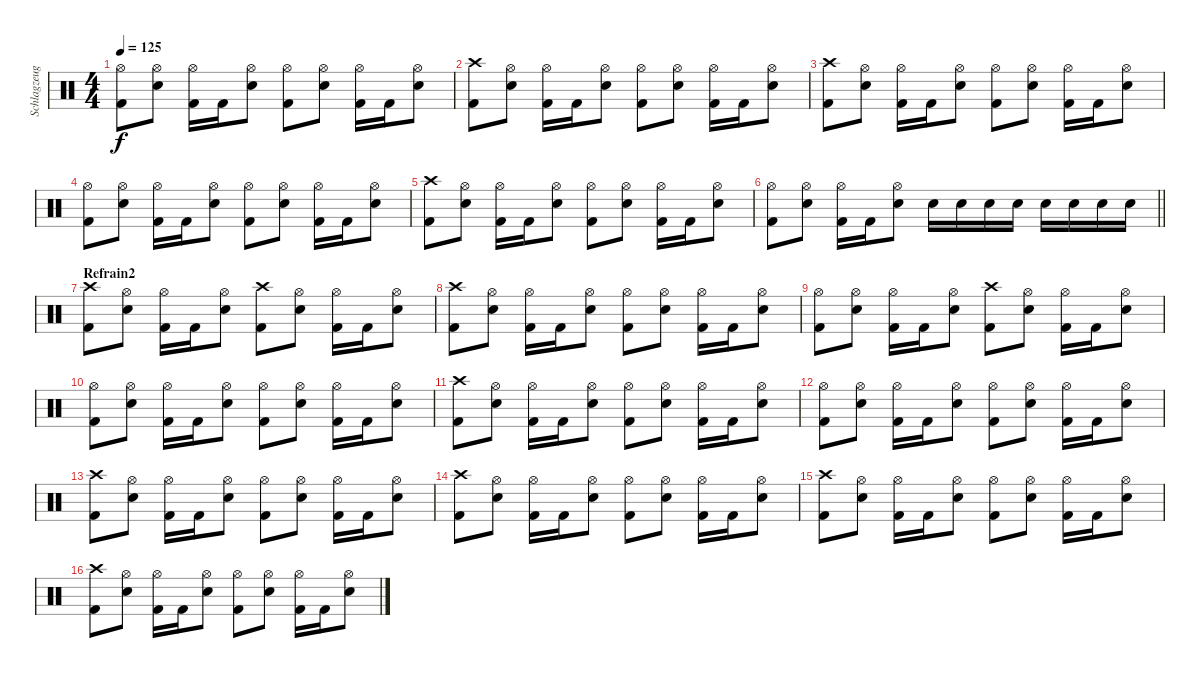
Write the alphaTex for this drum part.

\track ("Schlagzeug" "Schlagzeug") {instrument percussion}
\staff {score}
\articulation defaults
\ts (4 4)
\tempo 125
\clef neutral
\ks c
("Hi-Hat (open)" "Kick (hit) 2").8{dy f} ("Hi-Hat (open)" "Electric Snare (hit)").8 ("Hi-Hat (open)" "Kick (hit) 2").16 "Kick (hit) 2".16 ("Hi-Hat (open)" "Electric Snare (hit)").8 ("Hi-Hat (open)" "Kick (hit) 2").8 ("Hi-Hat (open)" "Electric Snare (hit)").8 ("Hi-Hat (open)" "Kick (hit) 2").16 "Kick (hit) 2".16 ("Hi-Hat (open)" "Electric Snare (hit)").8 |
("Crash high (hit)" "Kick (hit) 2").8 ("Hi-Hat (open)" "Electric Snare (hit)").8 ("Hi-Hat (open)" "Kick (hit) 2").16 "Kick (hit) 2".16 ("Hi-Hat (open)" "Electric Snare (hit)").8 ("Hi-Hat (open)" "Kick (hit) 2").8 ("Hi-Hat (open)" "Electric Snare (hit)").8 ("Hi-Hat (open)" "Kick (hit) 2").16 "Kick (hit) 2".16 ("Hi-Hat (open)" "Electric Snare (hit)").8 |
("Crash high (hit)" "Kick (hit) 2").8 ("Hi-Hat (open)" "Electric Snare (hit)").8 ("Hi-Hat (open)" "Kick (hit) 2").16 "Kick (hit) 2".16 ("Hi-Hat (open)" "Electric Snare (hit)").8 ("Hi-Hat (open)" "Kick (hit) 2").8 ("Hi-Hat (open)" "Electric Snare (hit)").8 ("Hi-Hat (open)" "Kick (hit) 2").16 "Kick (hit) 2".16 ("Hi-Hat (open)" "Electric Snare (hit)").8 |
("Hi-Hat (open)" "Kick (hit) 2").8 ("Hi-Hat (open)" "Electric Snare (hit)").8 ("Hi-Hat (open)" "Kick (hit) 2").16 "Kick (hit) 2".16 ("Hi-Hat (open)" "Electric Snare (hit)").8 ("Hi-Hat (open)" "Kick (hit) 2").8 ("Hi-Hat (open)" "Electric Snare (hit)").8 ("Hi-Hat (open)" "Kick (hit) 2").16 "Kick (hit) 2".16 ("Hi-Hat (open)" "Electric Snare (hit)").8 |
("Crash high (hit)" "Kick (hit) 2").8 ("Hi-Hat (open)" "Electric Snare (hit)").8 ("Hi-Hat (open)" "Kick (hit) 2").16 "Kick (hit) 2".16 ("Hi-Hat (open)" "Electric Snare (hit)").8 ("Hi-Hat (open)" "Kick (hit) 2").8 ("Hi-Hat (open)" "Electric Snare (hit)").8 ("Hi-Hat (open)" "Kick (hit) 2").16 "Kick (hit) 2".16 ("Hi-Hat (open)" "Electric Snare (hit)").8 |
\barLineRight lightlight
("Hi-Hat (open)" "Kick (hit) 2").8 ("Hi-Hat (open)" "Electric Snare (hit)").8 ("Hi-Hat (open)" "Kick (hit) 2").16 "Kick (hit) 2".16 ("Hi-Hat (open)" "Electric Snare (hit)").8 "Electric Snare (hit)".16 "Electric Snare (hit)".16 "Electric Snare (hit)".16 "Electric Snare (hit)".16 "Electric Snare (hit)".16 "Electric Snare (hit)".16 "Electric Snare (hit)".16 "Electric Snare (hit)".16 |
\section ("" "Refrain2")
("Crash high (hit)" "Kick (hit) 2").8 ("Hi-Hat (open)" "Electric Snare (hit)").8 ("Hi-Hat (open)" "Kick (hit) 2").16 "Kick (hit) 2".16 ("Hi-Hat (open)" "Electric Snare (hit)").8 ("Crash high (hit)" "Kick (hit) 2").8 ("Hi-Hat (open)" "Electric Snare (hit)").8 ("Hi-Hat (open)" "Kick (hit) 2").16 "Kick (hit) 2".16 ("Hi-Hat (open)" "Electric Snare (hit)").8 |
("Crash high (hit)" "Kick (hit) 2").8 ("Hi-Hat (open)" "Electric Snare (hit)").8 ("Hi-Hat (open)" "Kick (hit) 2").16 "Kick (hit) 2".16 ("Hi-Hat (open)" "Electric Snare (hit)").8 ("Hi-Hat (open)" "Kick (hit) 2").8 ("Hi-Hat (open)" "Electric Snare (hit)").8 ("Hi-Hat (open)" "Kick (hit) 2").16 "Kick (hit) 2".16 ("Hi-Hat (open)" "Electric Snare (hit)").8 |
("Hi-Hat (open)" "Kick (hit) 2").8 ("Hi-Hat (open)" "Electric Snare (hit)").8 ("Hi-Hat (open)" "Kick (hit) 2").16 "Kick (hit) 2".16 ("Hi-Hat (open)" "Electric Snare (hit)").8 ("Crash high (hit)" "Kick (hit) 2").8 ("Hi-Hat (open)" "Electric Snare (hit)").8 ("Hi-Hat (open)" "Kick (hit) 2").16 "Kick (hit) 2".16 ("Hi-Hat (open)" "Electric Snare (hit)").8 |
("Hi-Hat (open)" "Kick (hit) 2").8 ("Hi-Hat (open)" "Electric Snare (hit)").8 ("Hi-Hat (open)" "Kick (hit) 2").16 "Kick (hit) 2".16 ("Hi-Hat (open)" "Electric Snare (hit)").8 ("Hi-Hat (open)" "Kick (hit) 2").8 ("Hi-Hat (open)" "Electric Snare (hit)").8 ("Hi-Hat (open)" "Kick (hit) 2").16 "Kick (hit) 2".16 ("Hi-Hat (open)" "Electric Snare (hit)").8 |
("Crash high (hit)" "Kick (hit) 2").8 ("Hi-Hat (open)" "Electric Snare (hit)").8 ("Hi-Hat (open)" "Kick (hit) 2").16 "Kick (hit) 2".16 ("Hi-Hat (open)" "Electric Snare (hit)").8 ("Hi-Hat (open)" "Kick (hit) 2").8 ("Hi-Hat (open)" "Electric Snare (hit)").8 ("Hi-Hat (open)" "Kick (hit) 2").16 "Kick (hit) 2".16 ("Hi-Hat (open)" "Electric Snare (hit)").8 |
("Hi-Hat (open)" "Kick (hit) 2").8 ("Hi-Hat (open)" "Electric Snare (hit)").8 ("Hi-Hat (open)" "Kick (hit) 2").16 "Kick (hit) 2".16 ("Hi-Hat (open)" "Electric Snare (hit)").8 ("Hi-Hat (open)" "Kick (hit) 2").8 ("Hi-Hat (open)" "Electric Snare (hit)").8 ("Hi-Hat (open)" "Kick (hit) 2").16 "Kick (hit) 2".16 ("Hi-Hat (open)" "Electric Snare (hit)").8 |
("Crash high (hit)" "Kick (hit) 2").8 ("Hi-Hat (open)" "Electric Snare (hit)").8 ("Hi-Hat (open)" "Kick (hit) 2").16 "Kick (hit) 2".16 ("Hi-Hat (open)" "Electric Snare (hit)").8 ("Hi-Hat (open)" "Kick (hit) 2").8 ("Hi-Hat (open)" "Electric Snare (hit)").8 ("Hi-Hat (open)" "Kick (hit) 2").16 "Kick (hit) 2".16 ("Hi-Hat (open)" "Electric Snare (hit)").8 |
("Crash high (hit)" "Kick (hit) 2").8 ("Hi-Hat (open)" "Electric Snare (hit)").8 ("Hi-Hat (open)" "Kick (hit) 2").16 "Kick (hit) 2".16 ("Hi-Hat (open)" "Electric Snare (hit)").8 ("Hi-Hat (open)" "Kick (hit) 2").8 ("Hi-Hat (open)" "Electric Snare (hit)").8 ("Hi-Hat (open)" "Kick (hit) 2").16 "Kick (hit) 2".16 ("Hi-Hat (open)" "Electric Snare (hit)").8 |
("Crash high (hit)" "Kick (hit) 2").8 ("Hi-Hat (open)" "Electric Snare (hit)").8 ("Hi-Hat (open)" "Kick (hit) 2").16 "Kick (hit) 2".16 ("Hi-Hat (open)" "Electric Snare (hit)").8 ("Hi-Hat (open)" "Kick (hit) 2").8 ("Hi-Hat (open)" "Electric Snare (hit)").8 ("Hi-Hat (open)" "Kick (hit) 2").16 "Kick (hit) 2".16 ("Hi-Hat (open)" "Electric Snare (hit)").8 |
("Crash high (hit)" "Kick (hit) 2").8 ("Hi-Hat (open)" "Electric Snare (hit)").8 ("Hi-Hat (open)" "Kick (hit) 2").16 "Kick (hit) 2".16 ("Hi-Hat (open)" "Electric Snare (hit)").8 ("Hi-Hat (open)" "Kick (hit) 2").8 ("Hi-Hat (open)" "Electric Snare (hit)").8 ("Hi-Hat (open)" "Kick (hit) 2").16 "Kick (hit) 2".16 ("Hi-Hat (open)" "Electric Snare (hit)").8
